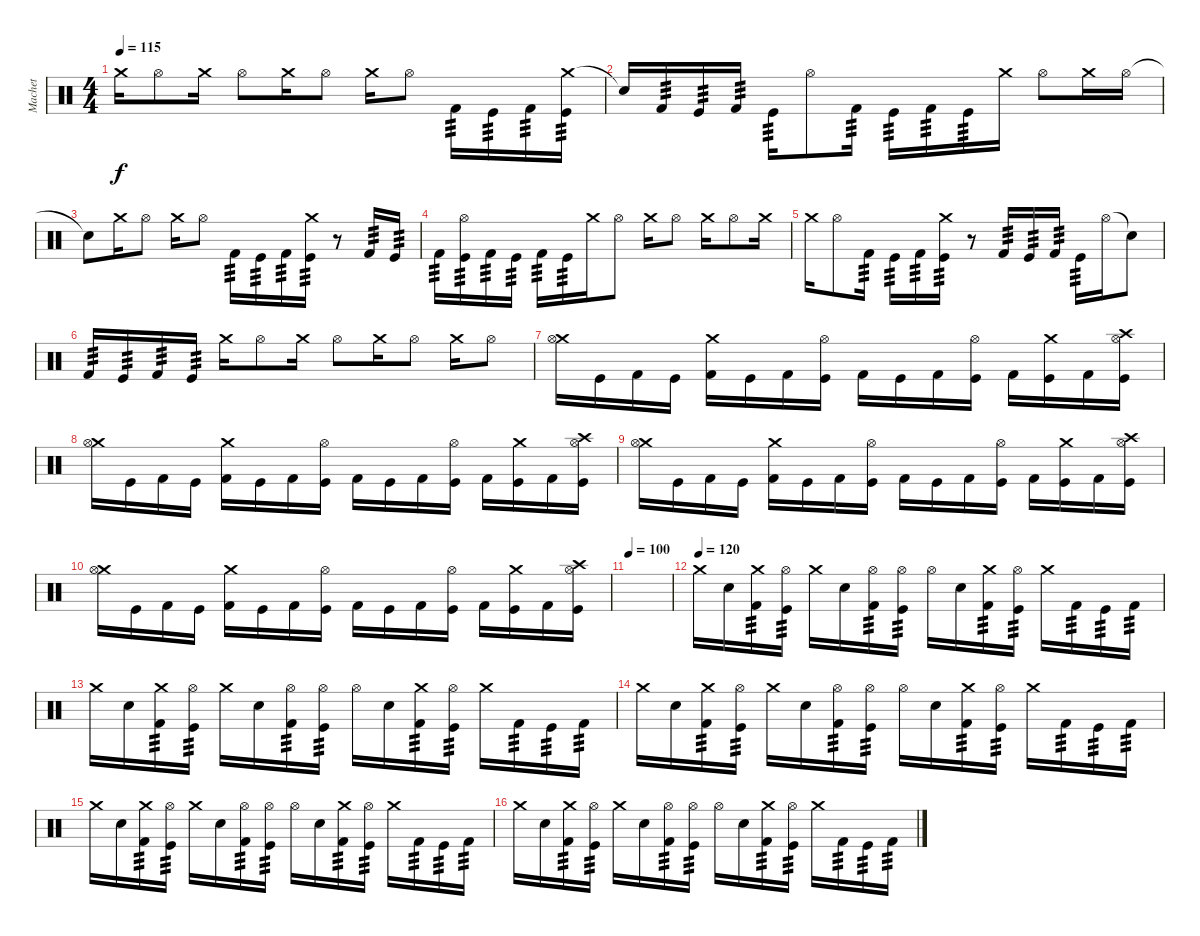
\track ("Machet" "Machet") {instrument percussion}
\staff {score}
\articulation defaults
\ts (4 4)
\tempo 115
\clef neutral
\ks c "Crash medium (hit)".16{dy f} "Hi-Hat (open)".8 "Crash medium (hit)".16 "Hi-Hat (open)".8 "Crash medium (hit)".16 "Hi-Hat (open)".8 "Crash medium (hit)".16 "Hi-Hat (open)".8 "Kick (hit) 2".16{tp 3} "Kick (hit)".16{tp 3} "Kick (hit) 2".16{tp 3}
("Crash medium (hit)" "Kick (hit)").16{tp 3} |
"Snare (hit)"{t}.16 "Kick (hit) 2".16{tp 3} "Kick (hit)".16{tp 3} "Kick (hit) 2".16{tp 3} "Kick (hit)".16{tp 3} "Hi-Hat (open)".8 "Kick (hit) 2".16{tp 3} "Kick (hit)".16{tp 3} "Kick (hit) 2".16{tp 3} "Kick (hit)".16{tp 3} "Crash medium (hit)".16 "Hi-Hat (open)".8 "Crash medium (hit)".16 "Hi-Hat (open)".16 |
"Snare (hit)"{t}.8 "Crash medium (hit)".16 "Hi-Hat (open)".8 "Crash medium (hit)".16 "Hi-Hat (open)".8 "Kick (hit) 2".16{tp 3} "Kick (hit)".16{tp 3} "Kick (hit) 2".16{tp 3} ("Crash medium (hit)" "Kick (hit)").16{tp 3} r.8 "Kick (hit) 2".16{tp 3} "Kick (hit)".16{tp 3} |
"Kick (hit) 2".16{tp 3} ("Hi-Hat (open)" "Kick (hit)").16{tp 3} "Kick (hit) 2".16{tp 3} "Kick (hit)".16{tp 3} "Kick (hit) 2".16{tp 3} "Kick (hit)".16{tp 3} "Crash medium (hit)".16 "Hi-Hat (open)".8 "Crash medium (hit)".16 "Hi-Hat (open)".8 "Crash medium (hit)".16 "Hi-Hat (open)".8 "Crash medium (hit)".16 |
"Crash medium (hit)".16 "Hi-Hat (open)".8 "Kick (hit) 2".16{tp 3} "Kick (hit)".16{tp 3} "Kick (hit) 2".16{tp 3} ("Crash medium (hit)" "Kick (hit)").16{tp 3} r.8 "Kick (hit) 2".16{tp 3} "Kick (hit)".16{tp 3} "Kick (hit) 2".16{tp 3} "Kick (hit)".16{tp 3} "Hi-Hat (open)".16 "Snare (hit)"{t}.8 |
"Kick (hit) 2".16{tp 3} "Kick (hit)".16{tp 3} "Kick (hit) 2".16{tp 3} "Kick (hit)".16{tp 3} "Crash medium (hit)".16 "Hi-Hat (open)".8 "Crash medium (hit)".16 "Hi-Hat (open)".8 "Crash medium (hit)".16 "Hi-Hat (open)".8 "Crash medium (hit)".16 "Hi-Hat (open)".8 |
("Crash medium (hit)" "Hi-Hat (open)").16 "Kick (hit)".16 "Kick (hit) 2".16 "Kick (hit)".16 ("Crash medium (hit)" "Kick (hit) 2").16 "Kick (hit)".16 "Kick (hit) 2".16 ("Hi-Hat (open)" "Kick (hit)").16 "Kick (hit) 2".16 "Kick (hit)".16 "Kick (hit) 2".16 ("Hi-Hat (open)" "Kick (hit)").16 "Kick (hit) 2".16 ("Crash medium (hit)" "Kick (hit)").16 "Kick (hit) 2".16 ("Hi-Hat (open)" "Crash high (hit)" "Kick (hit)").16 |
("Crash medium (hit)" "Hi-Hat (open)").16 "Kick (hit)".16 "Kick (hit) 2".16 "Kick (hit)".16 ("Crash medium (hit)" "Kick (hit) 2").16 "Kick (hit)".16 "Kick (hit) 2".16 ("Hi-Hat (open)" "Kick (hit)").16 "Kick (hit) 2".16 "Kick (hit)".16 "Kick (hit) 2".16 ("Hi-Hat (open)" "Kick (hit)").16 "Kick (hit) 2".16 ("Crash medium (hit)" "Kick (hit)").16 "Kick (hit) 2".16 ("Hi-Hat (open)" "Crash high (hit)" "Kick (hit)").16 |
("Crash medium (hit)" "Hi-Hat (open)").16 "Kick (hit)".16 "Kick (hit) 2".16 "Kick (hit)".16 ("Crash medium (hit)" "Kick (hit) 2").16 "Kick (hit)".16 "Kick (hit) 2".16 ("Hi-Hat (open)" "Kick (hit)").16 "Kick (hit) 2".16 "Kick (hit)".16 "Kick (hit) 2".16 ("Hi-Hat (open)" "Kick (hit)").16 "Kick (hit) 2".16 ("Crash medium (hit)" "Kick (hit)").16 "Kick (hit) 2".16 ("Hi-Hat (open)" "Crash high (hit)" "Kick (hit)").16 |
("Crash medium (hit)" "Hi-Hat (open)").16 "Kick (hit)".16 "Kick (hit) 2".16 "Kick (hit)".16 ("Crash medium (hit)" "Kick (hit) 2").16 "Kick (hit)".16 "Kick (hit) 2".16 ("Hi-Hat (open)" "Kick (hit)").16 "Kick (hit) 2".16 "Kick (hit)".16 "Kick (hit) 2".16 ("Hi-Hat (open)" "Kick (hit)").16 "Kick (hit) 2".16 ("Crash medium (hit)" "Kick (hit)").16 "Kick (hit) 2".16 ("Hi-Hat (open)" "Crash high (hit)" "Kick (hit)").16 |
\tempo 100
|
\tempo (120)
"Crash medium (hit)".16 "Electric Snare (hit)".16 ("Crash medium (hit)" "Kick (hit) 2").16{tp 3} ("Hi-Hat (open)" "Kick (hit)").16{tp 3} "Crash medium (hit)".16 "Electric Snare (hit)".16 ("Hi-Hat (open)" "Kick (hit) 2").16{tp 3} ("Hi-Hat (open)" "Kick (hit)").16{tp 3} "Hi-Hat (open)".16 "Electric Snare (hit)".16 ("Crash medium (hit)" "Kick (hit) 2").16{tp 3} ("Hi-Hat (open)" "Kick (hit)").16{tp 3} "Crash medium (hit)".16 "Kick (hit) 2".16{tp 3} "Kick (hit)".16{tp 3} "Kick (hit) 2".16{tp 3} |
"Crash medium (hit)".16 "Electric Snare (hit)".16 ("Crash medium (hit)" "Kick (hit) 2").16{tp 3} ("Hi-Hat (open)" "Kick (hit)").16{tp 3} "Crash medium (hit)".16 "Electric Snare (hit)".16 ("Hi-Hat (open)" "Kick (hit) 2").16{tp 3} ("Hi-Hat (open)" "Kick (hit)").16{tp 3} "Hi-Hat (open)".16 "Electric Snare (hit)".16 ("Crash medium (hit)" "Kick (hit) 2").16{tp 3} ("Hi-Hat (open)" "Kick (hit)").16{tp 3} "Crash medium (hit)".16 "Kick (hit) 2".16{tp 3} "Kick (hit)".16{tp 3} "Kick (hit) 2".16{tp 3} |
"Crash medium (hit)".16 "Electric Snare (hit)".16 ("Crash medium (hit)" "Kick (hit) 2").16{tp 3} ("Hi-Hat (open)" "Kick (hit)").16{tp 3} "Crash medium (hit)".16 "Electric Snare (hit)".16 ("Hi-Hat (open)" "Kick (hit) 2").16{tp 3} ("Hi-Hat (open)" "Kick (hit)").16{tp 3} "Hi-Hat (open)".16 "Electric Snare (hit)".16 ("Crash medium (hit)" "Kick (hit) 2").16{tp 3} ("Hi-Hat (open)" "Kick (hit)").16{tp 3} "Crash medium (hit)".16 "Kick (hit) 2".16{tp 3} "Kick (hit)".16{tp 3} "Kick (hit) 2".16{tp 3} |
"Crash medium (hit)".16 "Electric Snare (hit)".16 ("Crash medium (hit)" "Kick (hit) 2").16{tp 3} ("Hi-Hat (open)" "Kick (hit)").16{tp 3} "Crash medium (hit)".16 "Electric Snare (hit)".16 ("Hi-Hat (open)" "Kick (hit) 2").16{tp 3} ("Hi-Hat (open)" "Kick (hit)").16{tp 3} "Hi-Hat (open)".16 "Electric Snare (hit)".16 ("Crash medium (hit)" "Kick (hit) 2").16{tp 3} ("Hi-Hat (open)" "Kick (hit)").16{tp 3} "Crash medium (hit)".16 "Kick (hit) 2".16{tp 3} "Kick (hit)".16{tp 3} "Kick (hit) 2".16{tp 3} |
"Crash medium (hit)".16 "Electric Snare (hit)".16 ("Crash medium (hit)" "Kick (hit) 2").16{tp 3} ("Hi-Hat (open)" "Kick (hit)").16{tp 3} "Crash medium (hit)".16 "Electric Snare (hit)".16 ("Hi-Hat (open)" "Kick (hit) 2").16{tp 3} ("Hi-Hat (open)" "Kick (hit)").16{tp 3} "Hi-Hat (open)".16 "Electric Snare (hit)".16 ("Crash medium (hit)" "Kick (hit) 2").16{tp 3} ("Hi-Hat (open)" "Kick (hit)").16{tp 3} "Crash medium (hit)".16 "Kick (hit) 2".16{tp 3} "Kick (hit)".16{tp 3} "Kick (hit) 2".16{tp 3}
